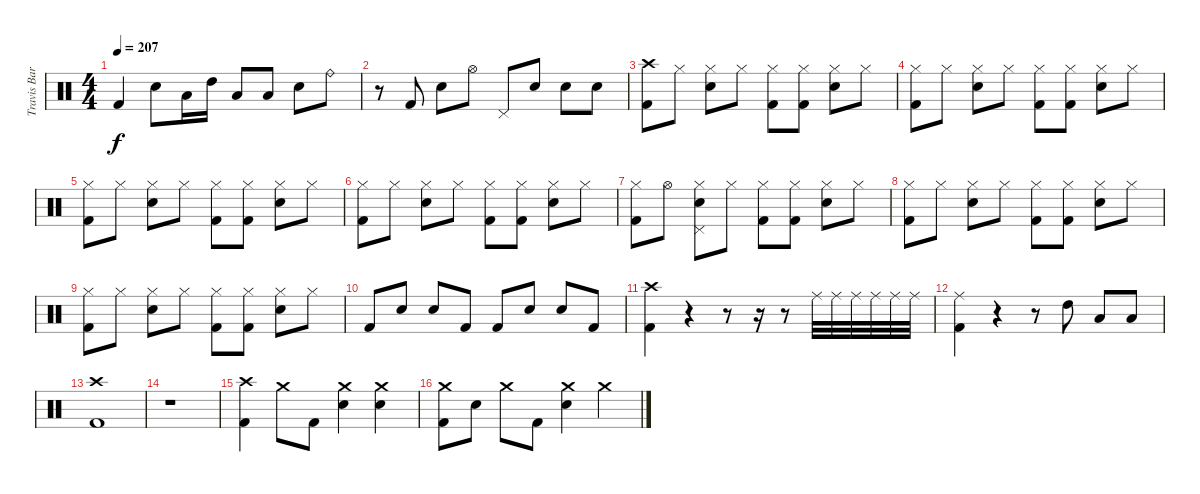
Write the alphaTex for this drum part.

\track ("Travis Barker" "Travis Bar") {instrument percussion}
\staff {score}
\articulation defaults
\ts (4 4)
\tempo 207
\clef neutral
\ks c "Kick (hit) 2".4{dy f} "Electric Snare (hit)".8 "Low Tom (hit)".16 "High Tom (hit)".16 "Low Tom (hit)".8 "Low Tom (hit)".8 "Electric Snare (hit)".8 "Ride (bell)".8
|
r.8 "Kick (hit) 2".8 "Electric Snare (hit)".8 "Hi-Hat (open)".8 "Pedal Hi-Hat (hit)".8 "Electric Snare (hit)".8 "Electric Snare (hit)".8 "Electric Snare (hit)".8 |
("Crash high (hit)" "Kick (hit) 2").8 "Hi-Hat (closed)".8 ("Hi-Hat (closed)" "Electric Snare (hit)").8 "Hi-Hat (closed)".8 ("Hi-Hat (closed)" "Kick (hit) 2").8 ("Hi-Hat (closed)" "Kick (hit) 2").8 ("Hi-Hat (closed)" "Electric Snare (hit)").8 "Hi-Hat (closed)".8 |
("Hi-Hat (closed)" "Kick (hit) 2").8 "Hi-Hat (closed)".8 ("Hi-Hat (closed)" "Electric Snare (hit)").8 "Hi-Hat (closed)".8 ("Hi-Hat (closed)" "Kick (hit) 2").8 ("Hi-Hat (closed)" "Kick (hit) 2").8 ("Hi-Hat (closed)" "Electric Snare (hit)").8 "Hi-Hat (closed)".8 |
("Hi-Hat (closed)" "Kick (hit) 2").8 "Hi-Hat (closed)".8 ("Hi-Hat (closed)" "Electric Snare (hit)").8 "Hi-Hat (closed)".8 ("Hi-Hat (closed)" "Kick (hit) 2").8 ("Hi-Hat (closed)" "Kick (hit) 2").8 ("Hi-Hat (closed)" "Electric Snare (hit)").8 "Hi-Hat (closed)".8 |
("Hi-Hat (closed)" "Kick (hit) 2").8 "Hi-Hat (closed)".8 ("Hi-Hat (closed)" "Electric Snare (hit)").8 "Hi-Hat (closed)".8 ("Hi-Hat (closed)" "Kick (hit) 2").8 ("Hi-Hat (closed)" "Kick (hit) 2").8 ("Hi-Hat (closed)" "Electric Snare (hit)").8 "Hi-Hat (closed)".8 |
("Hi-Hat (closed)" "Kick (hit) 2").8 "Hi-Hat (open)".8 ("Hi-Hat (closed)" "Electric Snare (hit)" "Pedal Hi-Hat (hit)").8 "Hi-Hat (closed)".8 ("Hi-Hat (closed)" "Kick (hit) 2").8 ("Hi-Hat (closed)" "Kick (hit) 2").8 ("Hi-Hat (closed)" "Electric Snare (hit)").8 "Hi-Hat (closed)".8 |
("Hi-Hat (closed)" "Kick (hit) 2").8 "Hi-Hat (closed)".8 ("Hi-Hat (closed)" "Electric Snare (hit)").8 "Hi-Hat (closed)".8 ("Hi-Hat (closed)" "Kick (hit) 2").8 ("Hi-Hat (closed)" "Kick (hit) 2").8 ("Hi-Hat (closed)" "Electric Snare (hit)").8 "Hi-Hat (closed)".8 |
("Hi-Hat (closed)" "Kick (hit) 2").8 "Hi-Hat (closed)".8 ("Hi-Hat (closed)" "Electric Snare (hit)").8 "Hi-Hat (closed)".8 ("Hi-Hat (closed)" "Kick (hit) 2").8 ("Hi-Hat (closed)" "Kick (hit) 2").8 ("Hi-Hat (closed)" "Electric Snare (hit)").8 "Hi-Hat (closed)".8 |
"Kick (hit) 2".8 "Electric Snare (hit)".8 "Electric Snare (hit)".8 "Kick (hit) 2".8 "Kick (hit) 2".8 "Electric Snare (hit)".8 "Electric Snare (hit)".8 "Kick (hit) 2".8 |
("Crash high (hit)" "Kick (hit) 2").4 r.4 r.8 r.16 r.8 "Ride (middle)".32 "Ride (middle)".32 "Ride (middle)".32 "Ride (middle)".32 "Ride (middle)".32 "Ride (middle)".32 |
("Ride (middle)" "Kick (hit) 2").4 r.4 r.8 "High Tom (hit)".8 "Low Tom (hit)".8 "Low Tom (hit)".8 |
("Crash high (hit)" "Kick (hit) 2").1 |
r.1 |
("Crash high (hit)" "Kick (hit) 2").4 "Crash medium (hit)".8 "Kick (hit) 2".8 ("Crash medium (hit)" "Electric Snare (hit)").4 ("Crash medium (hit)" "Electric Snare (hit)").4 |
("Crash medium (hit)" "Kick (hit) 2").8 "Electric Snare (hit)".8 "Crash medium (hit)".8 "Kick (hit) 2".8 ("Crash medium (hit)" "Electric Snare (hit)").4 "Crash medium (hit)".4
